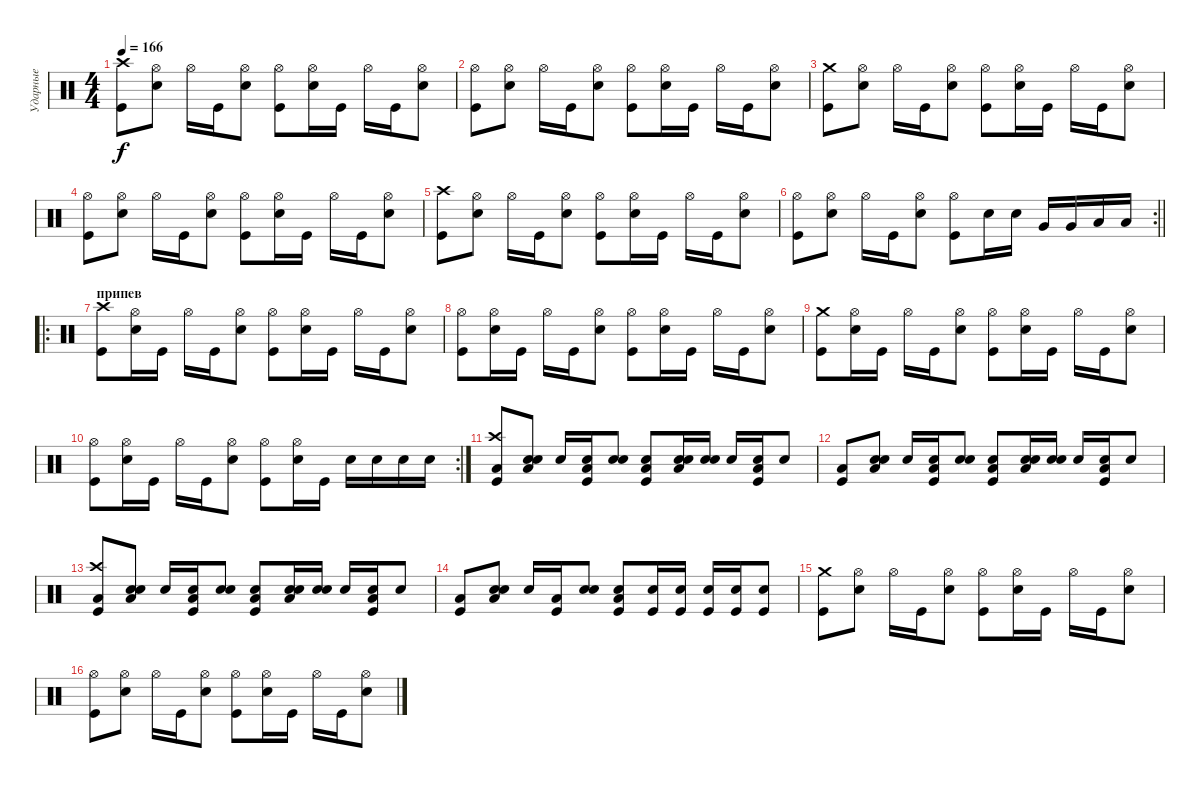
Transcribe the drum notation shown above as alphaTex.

\track ("Ударные" "Ударные") {instrument percussion}
\staff {score}
\articulation defaults
\ts (4 4)
\tempo 166
\clef neutral
\ks c
("Kick (hit)" "Crash high (hit)").8{dy f} ("Electric Snare (hit)" "Hi-Hat (open)").8 "Hi-Hat (open)".16 "Kick (hit)".16 ("Electric Snare (hit)" "Hi-Hat (open)").8 ("Kick (hit)" "Hi-Hat (open)").8 ("Electric Snare (hit)" "Hi-Hat (open)").16 "Kick (hit)".16 "Hi-Hat (open)".16 "Kick (hit)".16 ("Electric Snare (hit)" "Hi-Hat (open)").8 |
("Kick (hit)" "Hi-Hat (open)").8 ("Electric Snare (hit)" "Hi-Hat (open)").8 "Hi-Hat (open)".16 "Kick (hit)".16 ("Electric Snare (hit)" "Hi-Hat (open)").8 ("Kick (hit)" "Hi-Hat (open)").8 ("Electric Snare (hit)" "Hi-Hat (open)").16 "Kick (hit)".16 "Hi-Hat (open)".16 "Kick (hit)".16 ("Electric Snare (hit)" "Hi-Hat (open)").8 |
("Kick (hit)" "Crash medium (hit)").8 ("Electric Snare (hit)" "Hi-Hat (open)").8 "Hi-Hat (open)".16 "Kick (hit)".16 ("Electric Snare (hit)" "Hi-Hat (open)").8 ("Kick (hit)" "Hi-Hat (open)").8 ("Electric Snare (hit)" "Hi-Hat (open)").16 "Kick (hit)".16 "Hi-Hat (open)".16 "Kick (hit)".16 ("Electric Snare (hit)" "Hi-Hat (open)").8 |
("Kick (hit)" "Hi-Hat (open)").8 ("Electric Snare (hit)" "Hi-Hat (open)").8 "Hi-Hat (open)".16 "Kick (hit)".16 ("Electric Snare (hit)" "Hi-Hat (open)").8 ("Kick (hit)" "Hi-Hat (open)").8 ("Electric Snare (hit)" "Hi-Hat (open)").16 "Kick (hit)".16 "Hi-Hat (open)".16 "Kick (hit)".16 ("Electric Snare (hit)" "Hi-Hat (open)").8 |
("Kick (hit)" "Crash high (hit)").8 ("Electric Snare (hit)" "Hi-Hat (open)").8 "Hi-Hat (open)".16 "Kick (hit)".16 ("Electric Snare (hit)" "Hi-Hat (open)").8 ("Kick (hit)" "Hi-Hat (open)").8 ("Electric Snare (hit)" "Hi-Hat (open)").16 "Kick (hit)".16 "Hi-Hat (open)".16 "Kick (hit)".16 ("Electric Snare (hit)" "Hi-Hat (open)").8 |
\rc 2
\barLineRight lightlight
("Kick (hit)" "Hi-Hat (open)").8 ("Electric Snare (hit)" "Hi-Hat (open)").8 "Hi-Hat (open)".16 "Kick (hit)".16 ("Electric Snare (hit)" "Hi-Hat (open)").8 ("Kick (hit)" "Hi-Hat (open)").8 "Electric Snare (hit)".16 "Electric Snare (hit)".16 "Very Low Tom (hit)".16 "Very Low Tom (hit)".16 "Low Tom (hit)".16 "Low Tom (hit)".16 |
\ro
\section ("" "припев")
("Kick (hit)" "Crash high (hit)").8 ("Electric Snare (hit)" "Hi-Hat (open)").16 "Kick (hit)".16 "Hi-Hat (open)".16 "Kick (hit)".16 ("Electric Snare (hit)" "Hi-Hat (open)").8 ("Kick (hit)" "Hi-Hat (open)").8 ("Electric Snare (hit)" "Hi-Hat (open)").16 "Kick (hit)".16 "Hi-Hat (open)".16 "Kick (hit)".16 ("Electric Snare (hit)" "Hi-Hat (open)").8 |
("Kick (hit)" "Hi-Hat (open)").8 ("Electric Snare (hit)" "Hi-Hat (open)").16 "Kick (hit)".16 "Hi-Hat (open)".16 "Kick (hit)".16 ("Electric Snare (hit)" "Hi-Hat (open)").8 ("Kick (hit)" "Hi-Hat (open)").8 ("Electric Snare (hit)" "Hi-Hat (open)").16 "Kick (hit)".16 "Hi-Hat (open)".16 "Kick (hit)".16 ("Electric Snare (hit)" "Hi-Hat (open)").8 |
("Kick (hit)" "Crash medium (hit)").8 ("Electric Snare (hit)" "Hi-Hat (open)").16 "Kick (hit)".16 "Hi-Hat (open)".16 "Kick (hit)".16 ("Electric Snare (hit)" "Hi-Hat (open)").8 ("Kick (hit)" "Hi-Hat (open)").8 ("Electric Snare (hit)" "Hi-Hat (open)").16 "Kick (hit)".16 "Hi-Hat (open)".16 "Kick (hit)".16 ("Electric Snare (hit)" "Hi-Hat (open)").8 |
\rc 2
("Kick (hit)" "Hi-Hat (open)").8 ("Electric Snare (hit)" "Hi-Hat (open)").16 "Kick (hit)".16 "Hi-Hat (open)".16 "Kick (hit)".16 ("Electric Snare (hit)" "Hi-Hat (open)").8 ("Kick (hit)" "Hi-Hat (open)").8 ("Electric Snare (hit)" "Hi-Hat (open)").16 "Kick (hit)".16 "Electric Snare (hit)".16 "Electric Snare (hit)".16 "Electric Snare (hit)".16 "Electric Snare (hit)".16 |
("Kick (hit)" "Low Tom (hit)" "Crash high (hit)").8 ("Electric Snare (hit)" "Low Tom (hit)" "Snare (hit)").8 "Snare (hit)".16 ("Kick (hit)" "Low Tom (hit)" "Snare (hit)").16 ("Electric Snare (hit)" "Snare (hit)").8 ("Kick (hit)" "Low Tom (hit)" "Snare (hit)").8 ("Electric Snare (hit)" "Low Tom (hit)" "Snare (hit)").16 ("Snare (hit)" "Snare (hit)").16 "Snare (hit)".16 ("Kick (hit)" "Low Tom (hit)" "Snare (hit)").16 "Electric Snare (hit)".8 |
("Kick (hit)" "Low Tom (hit)").8 ("Electric Snare (hit)" "Low Tom (hit)" "Snare (hit)").8 "Snare (hit)".16 ("Kick (hit)" "Low Tom (hit)" "Snare (hit)").16 ("Electric Snare (hit)" "Snare (hit)").8 ("Kick (hit)" "Low Tom (hit)" "Snare (hit)").8 ("Electric Snare (hit)" "Low Tom (hit)" "Snare (hit)").16 ("Snare (hit)" "Snare (hit)").16 "Snare (hit)".16 ("Kick (hit)" "Low Tom (hit)" "Snare (hit)").16 "Electric Snare (hit)".8 |
("Kick (hit)" "Low Tom (hit)" "Crash high (hit)").8 ("Electric Snare (hit)" "Low Tom (hit)" "Snare (hit)").8 "Snare (hit)".16 ("Kick (hit)" "Low Tom (hit)" "Snare (hit)").16 ("Electric Snare (hit)" "Snare (hit)").8 ("Kick (hit)" "Low Tom (hit)" "Snare (hit)").8 ("Electric Snare (hit)" "Low Tom (hit)" "Snare (hit)").16 ("Snare (hit)" "Snare (hit)").16 "Snare (hit)".16 ("Kick (hit)" "Low Tom (hit)" "Snare (hit)").16 "Electric Snare (hit)".8 |
("Kick (hit)" "Low Tom (hit)").8 ("Electric Snare (hit)" "Low Tom (hit)" "Snare (hit)").8 "Snare (hit)".16 ("Kick (hit)" "Low Tom (hit)").16 ("Electric Snare (hit)" "Snare (hit)").8 ("Kick (hit)" "Low Tom (hit)" "Snare (hit)").8 ("Electric Snare (hit)" "Kick (hit)").16 ("Electric Snare (hit)" "Kick (hit)").16 ("Electric Snare (hit)" "Kick (hit)").16 ("Electric Snare (hit)" "Kick (hit)").16 ("Electric Snare (hit)" "Kick (hit)").8 |
("Kick (hit)" "Crash medium (hit)").8 ("Electric Snare (hit)" "Hi-Hat (open)").8 "Hi-Hat (open)".16 "Kick (hit)".16 ("Electric Snare (hit)" "Hi-Hat (open)").8 ("Kick (hit)" "Hi-Hat (open)").8 ("Electric Snare (hit)" "Hi-Hat (open)").16 "Kick (hit)".16 "Hi-Hat (open)".16 "Kick (hit)".16 ("Electric Snare (hit)" "Hi-Hat (open)").8 |
("Kick (hit)" "Hi-Hat (open)").8 ("Electric Snare (hit)" "Hi-Hat (open)").8 "Hi-Hat (open)".16 "Kick (hit)".16 ("Electric Snare (hit)" "Hi-Hat (open)").8 ("Kick (hit)" "Hi-Hat (open)").8 ("Electric Snare (hit)" "Hi-Hat (open)").16 "Kick (hit)".16 "Hi-Hat (open)".16 "Kick (hit)".16 ("Electric Snare (hit)" "Hi-Hat (open)").8
